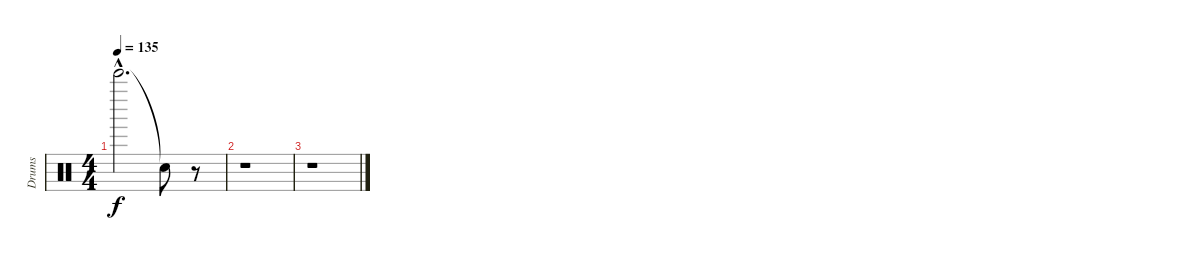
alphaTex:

\track ("Drums" "Drums") {instrument percussion}
\staff {score}
\articulation defaults
\ts (4 4)
\tempo 135
\clef neutral
\ks c "Bell Tree (hit)"{hac}.2{d dy f} "Snare (hit)"{t}.8
r.8 |
r.1 |
r.1
